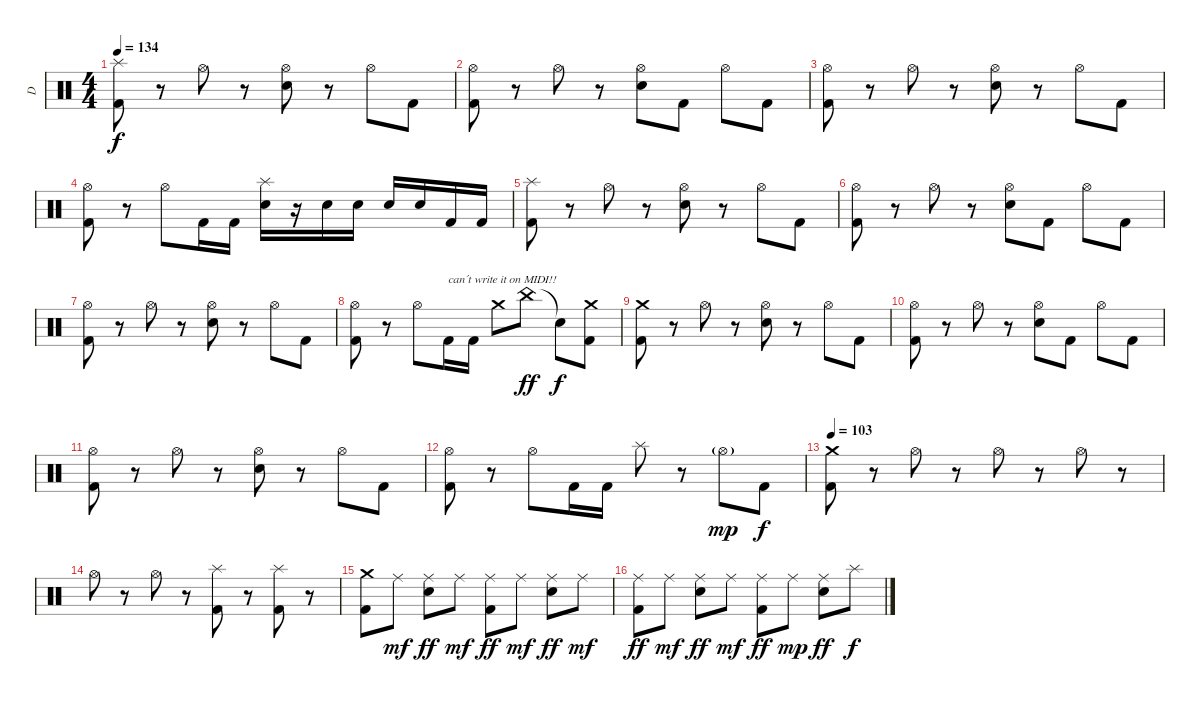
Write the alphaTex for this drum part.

\track ("D" "D") {instrument percussion}
\staff {score}
\articulation defaults
\ts (4 4)
\tempo 134
\clef neutral
\ks c
("Splash (hit)" "Kick (hit) 2").8{dy f} r.8 "Hi-Hat (open)".8 r.8 ("Hi-Hat (open)" "Snare (hit) 2").8 r.8 "Hi-Hat (open)".8 "Kick (hit) 2".8 |
("Hi-Hat (open)" "Kick (hit) 2").8 r.8 "Hi-Hat (open)".8 r.8 ("Hi-Hat (open)" "Snare (hit) 2").8 "Kick (hit) 2".8 "Hi-Hat (open)".8 "Kick (hit) 2".8 |
("Hi-Hat (open)" "Kick (hit) 2").8 r.8 "Hi-Hat (open)".8 r.8 ("Hi-Hat (open)" "Snare (hit) 2").8 r.8 "Hi-Hat (open)".8 "Kick (hit) 2".8 |
("Hi-Hat (open)" "Kick (hit) 2").8 r.8 "Hi-Hat (open)".8 "Kick (hit) 2".16 "Kick (hit) 2".16 ("Splash (hit)" "Snare (hit) 2").16 r.16 "Snare (hit) 2".16 "Snare (hit) 2".16 "Snare (hit) 2".16 "Snare (hit) 2".16 "Kick (hit) 2".16 "Kick (hit) 2".16 |
("Splash (hit)" "Kick (hit) 2").8 r.8 "Hi-Hat (open)".8 r.8 ("Hi-Hat (open)" "Snare (hit) 2").8 r.8 "Hi-Hat (open)".8 "Kick (hit) 2".8 |
("Hi-Hat (open)" "Kick (hit) 2").8 r.8 "Hi-Hat (open)".8 r.8 ("Hi-Hat (open)" "Snare (hit) 2").8 "Kick (hit) 2".8 "Hi-Hat (open)".8 "Kick (hit) 2".8 |
("Hi-Hat (open)" "Kick (hit) 2").8 r.8 "Hi-Hat (open)".8 r.8 ("Hi-Hat (open)" "Snare (hit) 2").8 r.8 "Hi-Hat (open)".8 "Kick (hit) 2".8 |
("Hi-Hat (open)" "Kick (hit) 2").8 r.8 "Hi-Hat (open)".8 "Kick (hit) 2".16{txt "can´t write it on MIDI!!"} "Kick (hit) 2".16 "Crash medium (hit)".8 "China (hit)".8{dy ff} "Snare (hit)"{t}.8{dy f} ("Crash medium (hit)" "Kick (hit) 2").8 |
("Crash medium (hit)" "Kick (hit) 2").8 r.8 "Hi-Hat (open)".8 r.8 ("Hi-Hat (open)" "Snare (hit) 2").8 r.8 "Hi-Hat (open)".8 "Kick (hit) 2".8 |
("Hi-Hat (open)" "Kick (hit) 2").8 r.8 "Hi-Hat (open)".8 r.8 ("Hi-Hat (open)" "Snare (hit) 2").8 "Kick (hit) 2".8 "Hi-Hat (open)".8 "Kick (hit) 2".8 |
("Hi-Hat (open)" "Kick (hit) 2").8 r.8 "Hi-Hat (open)".8 r.8 ("Hi-Hat (open)" "Snare (hit) 2").8 r.8 "Hi-Hat (open)".8 "Kick (hit) 2".8 |
("Hi-Hat (open)" "Kick (hit) 2").8 r.8 "Hi-Hat (open)".8 "Kick (hit) 2".16 "Kick (hit) 2".16 "Splash (hit)".8 r.8 "Hi-Hat (open)"{g}.8{dy mp} "Kick (hit) 2".8{dy f} |
\tempo 103
("Crash medium (hit)" "Kick (hit) 2").8 r.8 "Hi-Hat (open)".8 r.8 "Hi-Hat (open)".8 r.8 "Hi-Hat (open)".8 r.8 |
"Hi-Hat (open)".8 r.8 "Hi-Hat (open)".8 r.8 ("Splash (hit)" "Kick (hit) 2").8 r.8 ("Splash (hit)" "Kick (hit) 2").8 r.8 |
("Crash medium (hit)" "Kick (hit) 2").8 "Ride (middle)".8{dy mf} ("Ride (middle)" "Snare (hit) 2").8{dy ff} "Ride (middle)".8{dy mf} ("Ride (middle)" "Kick (hit) 2").8{dy ff} "Ride (middle)".8{dy mf} ("Ride (middle)" "Snare (hit) 2").8{dy ff} "Ride (middle)".8{dy mf} |
("Ride (middle)" "Kick (hit) 2").8{dy ff} "Ride (middle)".8{dy mf} ("Ride (middle)" "Snare (hit) 2").8{dy ff} "Ride (middle)".8{dy mf} ("Ride (middle)" "Kick (hit) 2").8{dy ff} "Ride (middle)".8{dy mp} ("Ride (middle)" "Snare (hit) 2").8{dy ff} "Splash (hit)".8{dy f}
